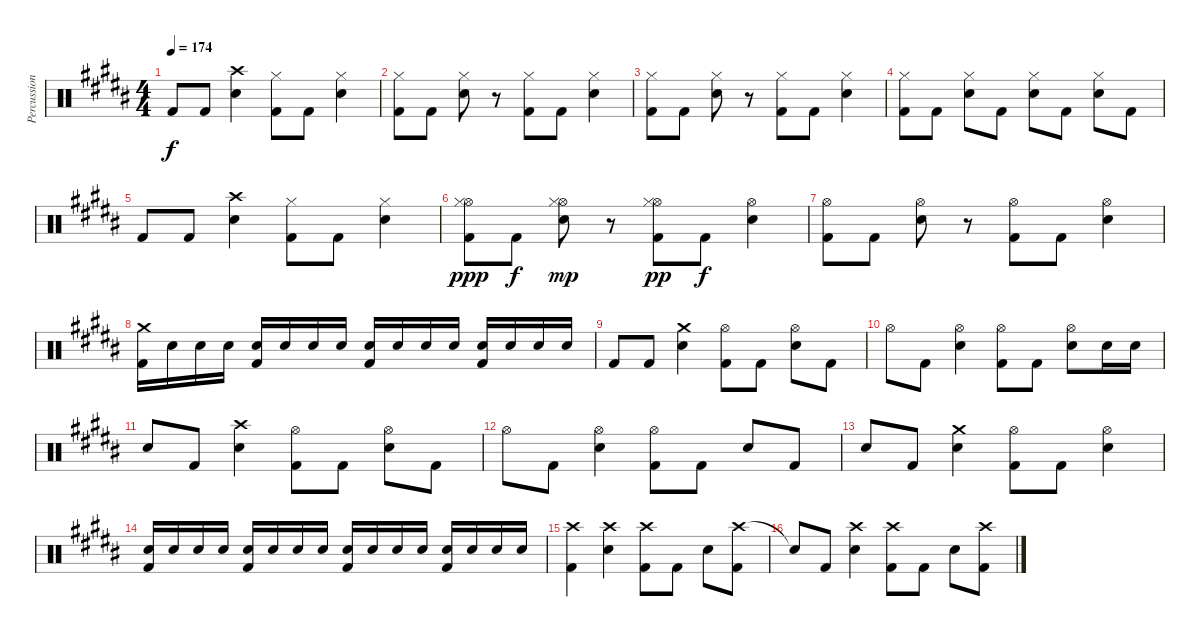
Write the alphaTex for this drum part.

\track ("Percussion" "Percussion") {instrument percussion}
\staff {score}
\articulation defaults
\ts (4 4)
\tempo 174
\clef neutral
\ks b "Kick (hit) 2".8{dy f} "Kick (hit) 2".8
("Crash high (hit)" "Electric Snare (hit)").4 ("Hi-Hat (closed)" "Kick (hit) 2").8 "Kick (hit) 2".8 ("Hi-Hat (closed)" "Electric Snare (hit)").4 |
("Hi-Hat (closed)" "Kick (hit) 2").8 "Kick (hit) 2".8 ("Hi-Hat (closed)" "Electric Snare (hit)").8 r.8 ("Hi-Hat (closed)" "Kick (hit) 2").8 "Kick (hit) 2".8 ("Hi-Hat (closed)" "Electric Snare (hit)").4 |
("Hi-Hat (closed)" "Kick (hit) 2").8 "Kick (hit) 2".8 ("Hi-Hat (closed)" "Electric Snare (hit)").8 r.8 ("Hi-Hat (closed)" "Kick (hit) 2").8 "Kick (hit) 2".8 ("Hi-Hat (closed)" "Electric Snare (hit)").4 |
("Hi-Hat (closed)" "Kick (hit) 2").8 "Kick (hit) 2".8 ("Hi-Hat (closed)" "Electric Snare (hit)").8 "Kick (hit) 2".8 ("Hi-Hat (closed)" "Electric Snare (hit)").8 "Kick (hit) 2".8 ("Hi-Hat (closed)" "Electric Snare (hit)").8 "Kick (hit) 2".8 |
"Kick (hit) 2".8 "Kick (hit) 2".8 ("Crash high (hit)" "Electric Snare (hit)").4 ("Hi-Hat (closed)" "Kick (hit) 2").8 "Kick (hit) 2".8 ("Hi-Hat (closed)" "Electric Snare (hit)").4 |
("Hi-Hat (open)" "Hi-Hat (closed)" "Kick (hit) 2").8{dy ppp} "Kick (hit) 2".8{dy f} ("Hi-Hat (open)" "Hi-Hat (closed)" "Electric Snare (hit)").8{dy mp} r.8 ("Hi-Hat (open)" "Hi-Hat (closed)" "Kick (hit) 2").8{dy pp} "Kick (hit) 2".8{dy f} ("Hi-Hat (open)" "Electric Snare (hit)").4 |
("Hi-Hat (open)" "Kick (hit) 2").8 "Kick (hit) 2".8 ("Hi-Hat (open)" "Electric Snare (hit)").8 r.8 ("Hi-Hat (open)" "Kick (hit) 2").8 "Kick (hit) 2".8 ("Hi-Hat (open)" "Electric Snare (hit)").4 |
("Crash medium (hit)" "Kick (hit) 2").16 "Electric Snare (hit)".16 "Electric Snare (hit)".16 "Electric Snare (hit)".16 ("Electric Snare (hit)" "Kick (hit) 2").16 "Electric Snare (hit)".16 "Electric Snare (hit)".16 "Electric Snare (hit)".16 ("Electric Snare (hit)" "Kick (hit) 2").16 "Electric Snare (hit)".16 "Electric Snare (hit)".16 "Electric Snare (hit)".16 ("Electric Snare (hit)" "Kick (hit) 2").16 "Electric Snare (hit)".16 "Electric Snare (hit)".16 "Electric Snare (hit)".16 |
"Kick (hit) 2".8 "Kick (hit) 2".8 ("Crash medium (hit)" "Electric Snare (hit)").4 ("Hi-Hat (open)" "Kick (hit) 2").8 "Kick (hit) 2".8 ("Hi-Hat (open)" "Electric Snare (hit)").8 "Kick (hit) 2".8 |
"Hi-Hat (open)".8 "Kick (hit) 2".8 ("Hi-Hat (open)" "Electric Snare (hit)").4 ("Hi-Hat (open)" "Kick (hit) 2").8 "Kick (hit) 2".8 ("Hi-Hat (open)" "Electric Snare (hit)").8 "Electric Snare (hit)".16 "Electric Snare (hit)".16 |
"Electric Snare (hit)".8 "Kick (hit) 2".8 ("Crash high (hit)" "Electric Snare (hit)").4 ("Hi-Hat (open)" "Kick (hit) 2").8 "Kick (hit) 2".8 ("Hi-Hat (open)" "Electric Snare (hit)").8 "Kick (hit) 2".8 |
"Hi-Hat (open)".8 "Kick (hit) 2".8 ("Hi-Hat (open)" "Electric Snare (hit)").4 ("Hi-Hat (open)" "Kick (hit) 2").8 "Kick (hit) 2".8 "Electric Snare (hit)".8 "Kick (hit) 2".8 |
"Electric Snare (hit)".8 "Kick (hit) 2".8 ("Crash medium (hit)" "Electric Snare (hit)").4 ("Hi-Hat (open)" "Kick (hit) 2").8 "Kick (hit) 2".8 ("Hi-Hat (open)" "Electric Snare (hit)").4 |
("Electric Snare (hit)" "Kick (hit) 2").16 "Electric Snare (hit)".16 "Electric Snare (hit)".16 "Electric Snare (hit)".16 ("Electric Snare (hit)" "Kick (hit) 2").16 "Electric Snare (hit)".16 "Electric Snare (hit)".16 "Electric Snare (hit)".16 ("Electric Snare (hit)" "Kick (hit) 2").16 "Electric Snare (hit)".16 "Electric Snare (hit)".16 "Electric Snare (hit)".16 ("Electric Snare (hit)" "Kick (hit) 2").16 "Electric Snare (hit)".16 "Electric Snare (hit)".16 "Electric Snare (hit)".16 |
("Crash high (hit)" "Kick (hit) 2").4 ("Crash high (hit)" "Electric Snare (hit)").4 ("Crash high (hit)" "Kick (hit) 2").8 "Kick (hit) 2".8 "Electric Snare (hit)".8 ("Crash high (hit)" "Kick (hit) 2").8 |
"Snare (hit)"{t}.8 "Kick (hit) 2".8 ("Crash high (hit)" "Electric Snare (hit)").4 ("Crash high (hit)" "Kick (hit) 2").8 "Kick (hit) 2".8 "Electric Snare (hit)".8 ("Crash high (hit)" "Kick (hit) 2").8
